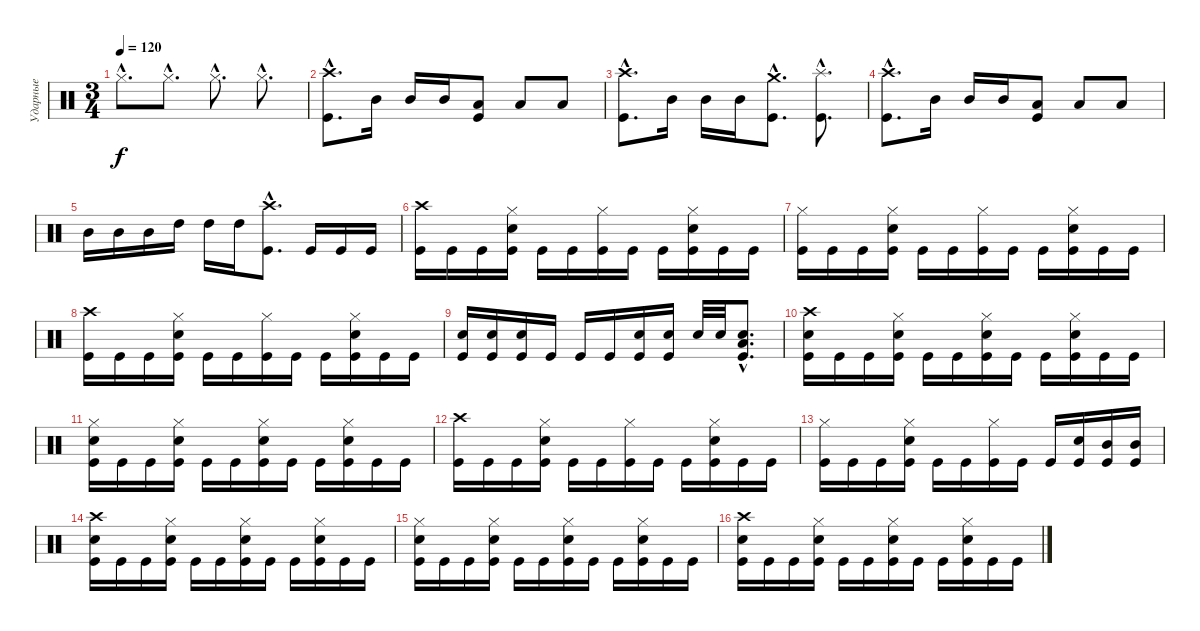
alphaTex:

\track ("Ударные" "Ударные") {instrument percussion}
\staff {score}
\articulation defaults
\ts (3 4)
\tempo 120
\clef neutral
\ks c "Hi-Hat (closed)"{hac}.8{d dy f} "Hi-Hat (closed)"{hac}.8{d} "Hi-Hat (closed)"{hac}.8{d} "Hi-Hat (closed)"{hac}.8{d}
|
("Crash high (hit)"{hac} "Kick (hit)"{hac}).8{d} "Mid Tom (hit)".16 "Mid Tom (hit)".16 "Mid Tom (hit)".16 ("Low Tom (hit)" "Kick (hit)").8 "Low Tom (hit)".8 "Low Tom (hit)".8 |
("Crash high (hit)"{hac} "Kick (hit)"{hac}).8{d} "Mid Tom (hit)".16 "Mid Tom (hit)".16 "Mid Tom (hit)".16 ("Crash medium (hit)"{hac} "Kick (hit)"{hac}).8{d} ("Splash (hit)"{hac} "Kick (hit)"{hac}).8{d} |
("Crash high (hit)"{hac} "Kick (hit)"{hac}).8{d} "Mid Tom (hit)".16 "Mid Tom (hit)".16 "Mid Tom (hit)".16 ("Low Tom (hit)" "Kick (hit)").8 "Low Tom (hit)".8 "Low Tom (hit)".8 |
"Mid Tom (hit)".16 "Mid Tom (hit)".16 "Mid Tom (hit)".16 "High Tom (hit)".16 "High Tom (hit)".16 "High Tom (hit)".16 ("Crash high (hit)"{hac} "Kick (hit)"{hac}).8{d} "Kick (hit)".16 "Kick (hit)".16 "Kick (hit)".16 |
("Crash high (hit)" "Kick (hit)").16 "Kick (hit)".16 "Kick (hit)".16 ("Hi-Hat (closed)" "Electric Snare (hit)" "Kick (hit)").16 "Kick (hit)".16 "Kick (hit)".16 ("Hi-Hat (closed)" "Kick (hit)").16 "Kick (hit)".16 "Kick (hit)".16 ("Hi-Hat (closed)" "Electric Snare (hit)" "Kick (hit)").16 "Kick (hit)".16 "Kick (hit)".16 |
("Hi-Hat (closed)" "Kick (hit)").16 "Kick (hit)".16 "Kick (hit)".16 ("Hi-Hat (closed)" "Electric Snare (hit)" "Kick (hit)").16 "Kick (hit)".16 "Kick (hit)".16 ("Hi-Hat (closed)" "Kick (hit)").16 "Kick (hit)".16 "Kick (hit)".16 ("Hi-Hat (closed)" "Electric Snare (hit)" "Kick (hit)").16 "Kick (hit)".16 "Kick (hit)".16 |
("Crash high (hit)" "Kick (hit)").16 "Kick (hit)".16 "Kick (hit)".16 ("Hi-Hat (closed)" "Electric Snare (hit)" "Kick (hit)").16 "Kick (hit)".16 "Kick (hit)".16 ("Hi-Hat (closed)" "Kick (hit)").16 "Kick (hit)".16 "Kick (hit)".16 ("Hi-Hat (closed)" "Electric Snare (hit)" "Kick (hit)").16 "Kick (hit)".16 "Kick (hit)".16 |
("Electric Snare (hit)" "Kick (hit)").16 ("Electric Snare (hit)" "Kick (hit)").16 ("Electric Snare (hit)" "Kick (hit)").16 "Kick (hit)".16 "Kick (hit)".16 "Kick (hit)".16 ("Electric Snare (hit)" "Kick (hit)").16 ("Electric Snare (hit)" "Kick (hit)").16 "Electric Snare (hit)".32 "Electric Snare (hit)".32 ("Electric Snare (hit)"{hac} "Low Tom (hit)"{hac} "Kick (hit)"{hac}).8{d} |
("Crash high (hit)" "Electric Snare (hit)" "Kick (hit)").16 "Kick (hit)".16 "Kick (hit)".16 ("Hi-Hat (closed)" "Electric Snare (hit)" "Kick (hit)").16 "Kick (hit)".16 "Kick (hit)".16 ("Hi-Hat (closed)" "Electric Snare (hit)" "Kick (hit)").16 "Kick (hit)".16 "Kick (hit)".16 ("Hi-Hat (closed)" "Electric Snare (hit)" "Kick (hit)").16 "Kick (hit)".16 "Kick (hit)".16 |
("Hi-Hat (closed)" "Electric Snare (hit)" "Kick (hit)").16 "Kick (hit)".16 "Kick (hit)".16 ("Hi-Hat (closed)" "Electric Snare (hit)" "Kick (hit)").16 "Kick (hit)".16 "Kick (hit)".16 ("Hi-Hat (closed)" "Electric Snare (hit)" "Kick (hit)").16 "Kick (hit)".16 "Kick (hit)".16 ("Hi-Hat (closed)" "Electric Snare (hit)" "Kick (hit)").16 "Kick (hit)".16 "Kick (hit)".16 |
("Crash high (hit)" "Kick (hit)").16 "Kick (hit)".16 "Kick (hit)".16 ("Hi-Hat (closed)" "Electric Snare (hit)" "Kick (hit)").16 "Kick (hit)".16 "Kick (hit)".16 ("Hi-Hat (closed)" "Kick (hit)").16 "Kick (hit)".16 "Kick (hit)".16 ("Hi-Hat (closed)" "Electric Snare (hit)" "Kick (hit)").16 "Kick (hit)".16 "Kick (hit)".16 |
("Hi-Hat (closed)" "Kick (hit)").16 "Kick (hit)".16 "Kick (hit)".16 ("Hi-Hat (closed)" "Electric Snare (hit)" "Kick (hit)").16 "Kick (hit)".16 "Kick (hit)".16 ("Hi-Hat (closed)" "Kick (hit)").16 "Kick (hit)".16 "Kick (hit)".16 ("Electric Snare (hit)" "Kick (hit)").16 ("Mid Tom (hit)" "Kick (hit)").16 ("Mid Tom (hit)" "Kick (hit)").16 |
("Crash high (hit)" "Electric Snare (hit)" "Kick (hit)").16 "Kick (hit)".16 "Kick (hit)".16 ("Hi-Hat (closed)" "Electric Snare (hit)" "Kick (hit)").16 "Kick (hit)".16 "Kick (hit)".16 ("Hi-Hat (closed)" "Electric Snare (hit)" "Kick (hit)").16 "Kick (hit)".16 "Kick (hit)".16 ("Hi-Hat (closed)" "Electric Snare (hit)" "Kick (hit)").16 "Kick (hit)".16 "Kick (hit)".16 |
("Hi-Hat (closed)" "Electric Snare (hit)" "Kick (hit)").16 "Kick (hit)".16 "Kick (hit)".16 ("Hi-Hat (closed)" "Electric Snare (hit)" "Kick (hit)").16 "Kick (hit)".16 "Kick (hit)".16 ("Hi-Hat (closed)" "Electric Snare (hit)" "Kick (hit)").16 "Kick (hit)".16 "Kick (hit)".16 ("Hi-Hat (closed)" "Electric Snare (hit)" "Kick (hit)").16 "Kick (hit)".16 "Kick (hit)".16 |
("Crash high (hit)" "Electric Snare (hit)" "Kick (hit)").16 "Kick (hit)".16 "Kick (hit)".16 ("Hi-Hat (closed)" "Electric Snare (hit)" "Kick (hit)").16 "Kick (hit)".16 "Kick (hit)".16 ("Hi-Hat (closed)" "Electric Snare (hit)" "Kick (hit)").16 "Kick (hit)".16 "Kick (hit)".16 ("Hi-Hat (closed)" "Electric Snare (hit)" "Kick (hit)").16 "Kick (hit)".16 "Kick (hit)".16
